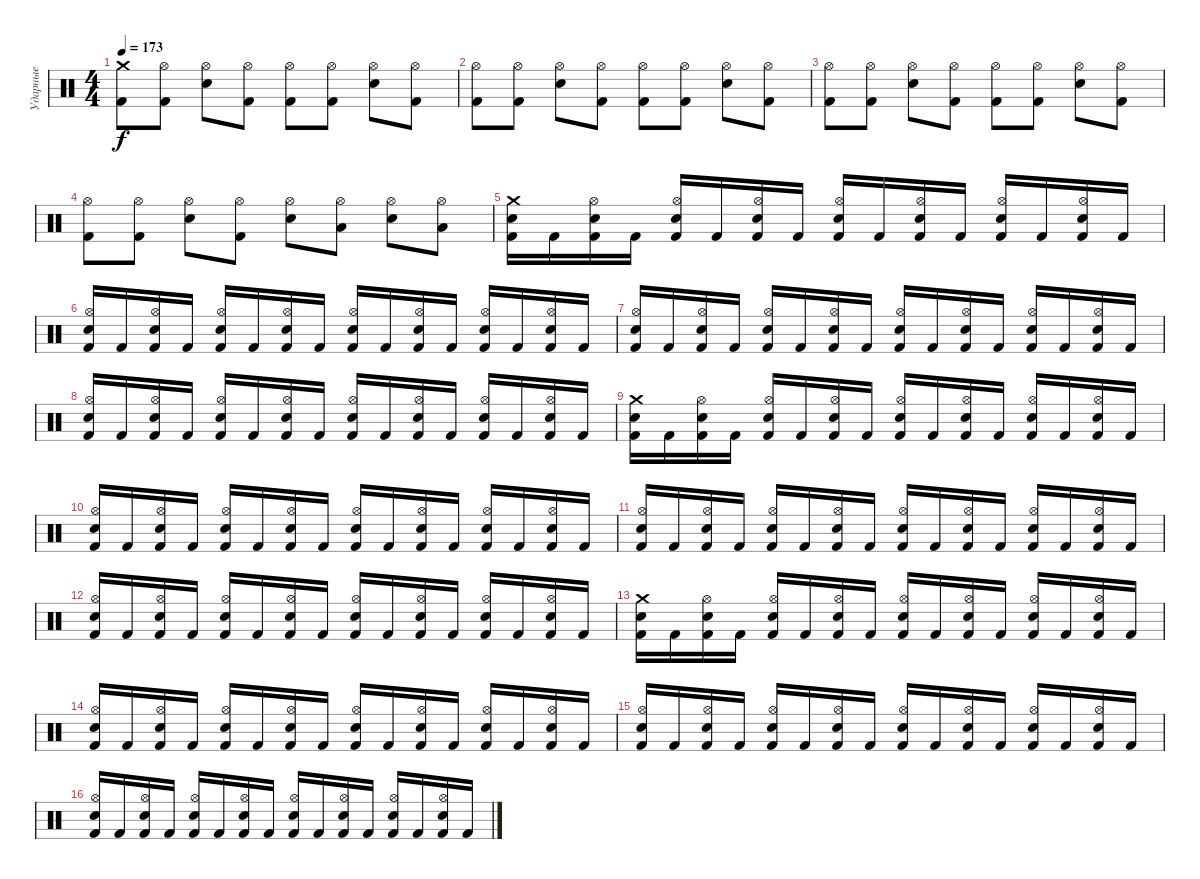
\track ("Ударные" "Ударные") {instrument percussion}
\staff {score}
\articulation defaults
\ts (4 4)
\tempo 173
\clef neutral
\ks c
("Crash medium (hit)" "Kick (hit) 2").8{dy f} ("Hi-Hat (open)" "Kick (hit) 2").8 ("Hi-Hat (open)" "Electric Snare (hit)").8 ("Hi-Hat (open)" "Kick (hit) 2").8 ("Hi-Hat (open)" "Kick (hit) 2").8 ("Hi-Hat (open)" "Kick (hit) 2").8 ("Hi-Hat (open)" "Electric Snare (hit)").8 ("Hi-Hat (open)" "Kick (hit) 2").8 |
("Hi-Hat (open)" "Kick (hit) 2").8 ("Hi-Hat (open)" "Kick (hit) 2").8 ("Hi-Hat (open)" "Electric Snare (hit)").8 ("Hi-Hat (open)" "Kick (hit) 2").8 ("Hi-Hat (open)" "Kick (hit) 2").8 ("Hi-Hat (open)" "Kick (hit) 2").8 ("Hi-Hat (open)" "Electric Snare (hit)").8 ("Hi-Hat (open)" "Kick (hit) 2").8 |
("Hi-Hat (open)" "Kick (hit) 2").8 ("Hi-Hat (open)" "Kick (hit) 2").8 ("Hi-Hat (open)" "Electric Snare (hit)").8 ("Hi-Hat (open)" "Kick (hit) 2").8 ("Hi-Hat (open)" "Kick (hit) 2").8 ("Hi-Hat (open)" "Kick (hit) 2").8 ("Hi-Hat (open)" "Electric Snare (hit)").8 ("Hi-Hat (open)" "Kick (hit) 2").8 |
("Hi-Hat (open)" "Kick (hit) 2").8 ("Hi-Hat (open)" "Kick (hit) 2").8 ("Hi-Hat (open)" "Electric Snare (hit)").8 ("Hi-Hat (open)" "Kick (hit) 2").8 ("Hi-Hat (open)" "Electric Snare (hit)").8 ("Hi-Hat (open)" "Low Tom (hit)").8 ("Hi-Hat (open)" "Electric Snare (hit)").8 ("Hi-Hat (open)" "Low Tom (hit)").8 |
("Crash medium (hit)" "Electric Snare (hit)" "Kick (hit) 2").16 "Kick (hit) 2".16 ("Hi-Hat (open)" "Electric Snare (hit)" "Kick (hit) 2").16 "Kick (hit) 2".16 ("Hi-Hat (open)" "Electric Snare (hit)" "Kick (hit) 2").16 "Kick (hit) 2".16 ("Hi-Hat (open)" "Electric Snare (hit)" "Kick (hit) 2").16 "Kick (hit) 2".16 ("Hi-Hat (open)" "Electric Snare (hit)" "Kick (hit) 2").16 "Kick (hit) 2".16 ("Hi-Hat (open)" "Electric Snare (hit)" "Kick (hit) 2").16 "Kick (hit) 2".16 ("Hi-Hat (open)" "Electric Snare (hit)" "Kick (hit) 2").16 "Kick (hit) 2".16 ("Hi-Hat (open)" "Electric Snare (hit)" "Kick (hit) 2").16 "Kick (hit) 2".16 |
("Hi-Hat (open)" "Electric Snare (hit)" "Kick (hit) 2").16 "Kick (hit) 2".16 ("Hi-Hat (open)" "Electric Snare (hit)" "Kick (hit) 2").16 "Kick (hit) 2".16 ("Hi-Hat (open)" "Electric Snare (hit)" "Kick (hit) 2").16 "Kick (hit) 2".16 ("Hi-Hat (open)" "Electric Snare (hit)" "Kick (hit) 2").16 "Kick (hit) 2".16 ("Hi-Hat (open)" "Electric Snare (hit)" "Kick (hit) 2").16 "Kick (hit) 2".16 ("Hi-Hat (open)" "Electric Snare (hit)" "Kick (hit) 2").16 "Kick (hit) 2".16 ("Hi-Hat (open)" "Electric Snare (hit)" "Kick (hit) 2").16 "Kick (hit) 2".16 ("Hi-Hat (open)" "Electric Snare (hit)" "Kick (hit) 2").16 "Kick (hit) 2".16 |
("Hi-Hat (open)" "Electric Snare (hit)" "Kick (hit) 2").16 "Kick (hit) 2".16 ("Hi-Hat (open)" "Electric Snare (hit)" "Kick (hit) 2").16 "Kick (hit) 2".16 ("Hi-Hat (open)" "Electric Snare (hit)" "Kick (hit) 2").16 "Kick (hit) 2".16 ("Hi-Hat (open)" "Electric Snare (hit)" "Kick (hit) 2").16 "Kick (hit) 2".16 ("Hi-Hat (open)" "Electric Snare (hit)" "Kick (hit) 2").16 "Kick (hit) 2".16 ("Hi-Hat (open)" "Electric Snare (hit)" "Kick (hit) 2").16 "Kick (hit) 2".16 ("Hi-Hat (open)" "Electric Snare (hit)" "Kick (hit) 2").16 "Kick (hit) 2".16 ("Hi-Hat (open)" "Electric Snare (hit)" "Kick (hit) 2").16 "Kick (hit) 2".16 |
("Hi-Hat (open)" "Electric Snare (hit)" "Kick (hit) 2").16 "Kick (hit) 2".16 ("Hi-Hat (open)" "Electric Snare (hit)" "Kick (hit) 2").16 "Kick (hit) 2".16 ("Hi-Hat (open)" "Electric Snare (hit)" "Kick (hit) 2").16 "Kick (hit) 2".16 ("Hi-Hat (open)" "Electric Snare (hit)" "Kick (hit) 2").16 "Kick (hit) 2".16 ("Hi-Hat (open)" "Electric Snare (hit)" "Kick (hit) 2").16 "Kick (hit) 2".16 ("Hi-Hat (open)" "Electric Snare (hit)" "Kick (hit) 2").16 "Kick (hit) 2".16 ("Hi-Hat (open)" "Electric Snare (hit)" "Kick (hit) 2").16 "Kick (hit) 2".16 ("Hi-Hat (open)" "Electric Snare (hit)" "Kick (hit) 2").16 "Kick (hit) 2".16 |
("Crash medium (hit)" "Electric Snare (hit)" "Kick (hit) 2").16 "Kick (hit) 2".16 ("Hi-Hat (open)" "Electric Snare (hit)" "Kick (hit) 2").16 "Kick (hit) 2".16 ("Hi-Hat (open)" "Electric Snare (hit)" "Kick (hit) 2").16 "Kick (hit) 2".16 ("Hi-Hat (open)" "Electric Snare (hit)" "Kick (hit) 2").16 "Kick (hit) 2".16 ("Hi-Hat (open)" "Electric Snare (hit)" "Kick (hit) 2").16 "Kick (hit) 2".16 ("Hi-Hat (open)" "Electric Snare (hit)" "Kick (hit) 2").16 "Kick (hit) 2".16 ("Hi-Hat (open)" "Electric Snare (hit)" "Kick (hit) 2").16 "Kick (hit) 2".16 ("Hi-Hat (open)" "Electric Snare (hit)" "Kick (hit) 2").16 "Kick (hit) 2".16 |
("Hi-Hat (open)" "Electric Snare (hit)" "Kick (hit) 2").16 "Kick (hit) 2".16 ("Hi-Hat (open)" "Electric Snare (hit)" "Kick (hit) 2").16 "Kick (hit) 2".16 ("Hi-Hat (open)" "Electric Snare (hit)" "Kick (hit) 2").16 "Kick (hit) 2".16 ("Hi-Hat (open)" "Electric Snare (hit)" "Kick (hit) 2").16 "Kick (hit) 2".16 ("Hi-Hat (open)" "Electric Snare (hit)" "Kick (hit) 2").16 "Kick (hit) 2".16 ("Hi-Hat (open)" "Electric Snare (hit)" "Kick (hit) 2").16 "Kick (hit) 2".16 ("Hi-Hat (open)" "Electric Snare (hit)" "Kick (hit) 2").16 "Kick (hit) 2".16 ("Hi-Hat (open)" "Electric Snare (hit)" "Kick (hit) 2").16 "Kick (hit) 2".16 |
("Hi-Hat (open)" "Electric Snare (hit)" "Kick (hit) 2").16 "Kick (hit) 2".16 ("Hi-Hat (open)" "Electric Snare (hit)" "Kick (hit) 2").16 "Kick (hit) 2".16 ("Hi-Hat (open)" "Electric Snare (hit)" "Kick (hit) 2").16 "Kick (hit) 2".16 ("Hi-Hat (open)" "Electric Snare (hit)" "Kick (hit) 2").16 "Kick (hit) 2".16 ("Hi-Hat (open)" "Electric Snare (hit)" "Kick (hit) 2").16 "Kick (hit) 2".16 ("Hi-Hat (open)" "Electric Snare (hit)" "Kick (hit) 2").16 "Kick (hit) 2".16 ("Hi-Hat (open)" "Electric Snare (hit)" "Kick (hit) 2").16 "Kick (hit) 2".16 ("Hi-Hat (open)" "Electric Snare (hit)" "Kick (hit) 2").16 "Kick (hit) 2".16 |
("Hi-Hat (open)" "Electric Snare (hit)" "Kick (hit) 2").16 "Kick (hit) 2".16 ("Hi-Hat (open)" "Electric Snare (hit)" "Kick (hit) 2").16 "Kick (hit) 2".16 ("Hi-Hat (open)" "Electric Snare (hit)" "Kick (hit) 2").16 "Kick (hit) 2".16 ("Hi-Hat (open)" "Electric Snare (hit)" "Kick (hit) 2").16 "Kick (hit) 2".16 ("Hi-Hat (open)" "Electric Snare (hit)" "Kick (hit) 2").16 "Kick (hit) 2".16 ("Hi-Hat (open)" "Electric Snare (hit)" "Kick (hit) 2").16 "Kick (hit) 2".16 ("Hi-Hat (open)" "Electric Snare (hit)" "Kick (hit) 2").16 "Kick (hit) 2".16 ("Hi-Hat (open)" "Electric Snare (hit)" "Kick (hit) 2").16 "Kick (hit) 2".16 |
("Crash medium (hit)" "Electric Snare (hit)" "Kick (hit) 2").16 "Kick (hit) 2".16 ("Hi-Hat (open)" "Electric Snare (hit)" "Kick (hit) 2").16 "Kick (hit) 2".16 ("Hi-Hat (open)" "Electric Snare (hit)" "Kick (hit) 2").16 "Kick (hit) 2".16 ("Hi-Hat (open)" "Electric Snare (hit)" "Kick (hit) 2").16 "Kick (hit) 2".16 ("Hi-Hat (open)" "Electric Snare (hit)" "Kick (hit) 2").16 "Kick (hit) 2".16 ("Hi-Hat (open)" "Electric Snare (hit)" "Kick (hit) 2").16 "Kick (hit) 2".16 ("Hi-Hat (open)" "Electric Snare (hit)" "Kick (hit) 2").16 "Kick (hit) 2".16 ("Hi-Hat (open)" "Electric Snare (hit)" "Kick (hit) 2").16 "Kick (hit) 2".16 |
("Hi-Hat (open)" "Electric Snare (hit)" "Kick (hit) 2").16 "Kick (hit) 2".16 ("Hi-Hat (open)" "Electric Snare (hit)" "Kick (hit) 2").16 "Kick (hit) 2".16 ("Hi-Hat (open)" "Electric Snare (hit)" "Kick (hit) 2").16 "Kick (hit) 2".16 ("Hi-Hat (open)" "Electric Snare (hit)" "Kick (hit) 2").16 "Kick (hit) 2".16 ("Hi-Hat (open)" "Electric Snare (hit)" "Kick (hit) 2").16 "Kick (hit) 2".16 ("Hi-Hat (open)" "Electric Snare (hit)" "Kick (hit) 2").16 "Kick (hit) 2".16 ("Hi-Hat (open)" "Electric Snare (hit)" "Kick (hit) 2").16 "Kick (hit) 2".16 ("Hi-Hat (open)" "Electric Snare (hit)" "Kick (hit) 2").16 "Kick (hit) 2".16 |
("Hi-Hat (open)" "Electric Snare (hit)" "Kick (hit) 2").16 "Kick (hit) 2".16 ("Hi-Hat (open)" "Electric Snare (hit)" "Kick (hit) 2").16 "Kick (hit) 2".16 ("Hi-Hat (open)" "Electric Snare (hit)" "Kick (hit) 2").16 "Kick (hit) 2".16 ("Hi-Hat (open)" "Electric Snare (hit)" "Kick (hit) 2").16 "Kick (hit) 2".16 ("Hi-Hat (open)" "Electric Snare (hit)" "Kick (hit) 2").16 "Kick (hit) 2".16 ("Hi-Hat (open)" "Electric Snare (hit)" "Kick (hit) 2").16 "Kick (hit) 2".16 ("Hi-Hat (open)" "Electric Snare (hit)" "Kick (hit) 2").16 "Kick (hit) 2".16 ("Hi-Hat (open)" "Electric Snare (hit)" "Kick (hit) 2").16 "Kick (hit) 2".16 |
("Hi-Hat (open)" "Electric Snare (hit)" "Kick (hit) 2").16 "Kick (hit) 2".16 ("Hi-Hat (open)" "Electric Snare (hit)" "Kick (hit) 2").16 "Kick (hit) 2".16 ("Hi-Hat (open)" "Electric Snare (hit)" "Kick (hit) 2").16 "Kick (hit) 2".16 ("Hi-Hat (open)" "Electric Snare (hit)" "Kick (hit) 2").16 "Kick (hit) 2".16 ("Hi-Hat (open)" "Electric Snare (hit)" "Kick (hit) 2").16 "Kick (hit) 2".16 ("Hi-Hat (open)" "Electric Snare (hit)" "Kick (hit) 2").16 "Kick (hit) 2".16 ("Hi-Hat (open)" "Electric Snare (hit)" "Kick (hit) 2").16 "Kick (hit) 2".16 ("Hi-Hat (open)" "Electric Snare (hit)" "Kick (hit) 2").16 "Kick (hit) 2".16
